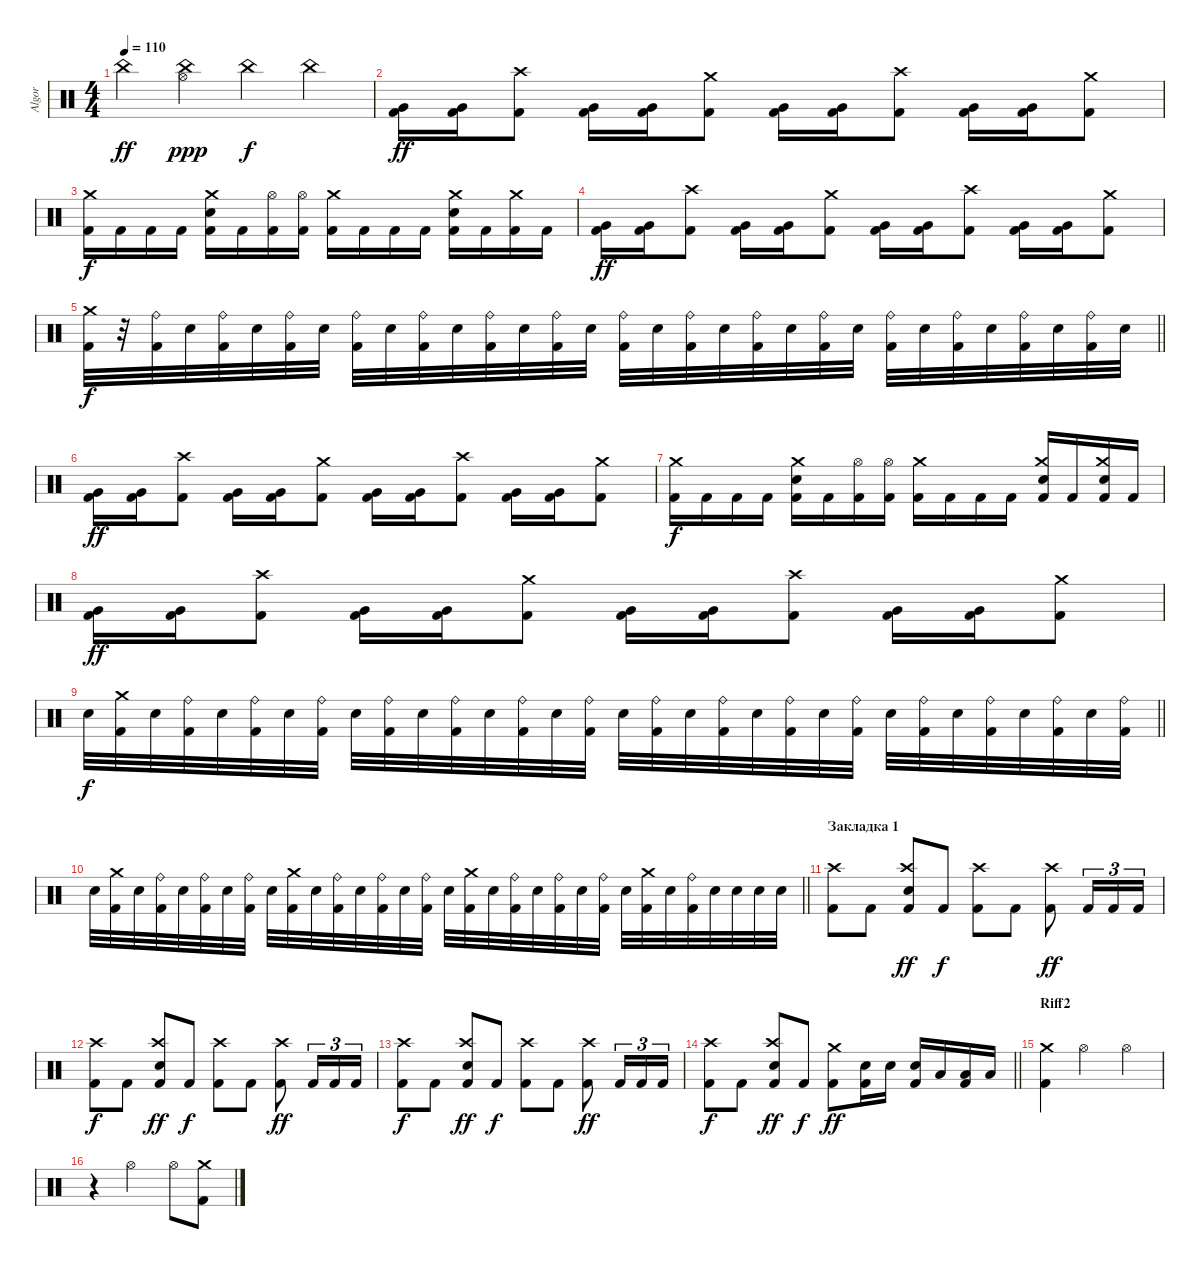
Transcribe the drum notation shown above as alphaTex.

\track ("Algor" "Algor") {instrument percussion}
\staff {score}
\articulation defaults
\ts (4 4)
\tempo 110
\clef neutral
\ks c "China (hit)".4{dy ff}
("Hi-Hat (open)" "China (hit)").4{dy ppp} "China (hit)".4{dy f} "China (hit)".4 |
("Very Low Tom (hit)" "Kick (hit) 2").16{dy ff} ("Very Low Tom (hit)" "Kick (hit) 2").16 ("Crash high (hit)" "Kick (hit) 2").8 ("Very Low Tom (hit)" "Kick (hit) 2").16 ("Very Low Tom (hit)" "Kick (hit) 2").16 ("Crash medium (hit)" "Kick (hit) 2").8 ("Very Low Tom (hit)" "Kick (hit) 2").16 ("Very Low Tom (hit)" "Kick (hit) 2").16 ("Crash high (hit)" "Kick (hit) 2").8 ("Very Low Tom (hit)" "Kick (hit) 2").16 ("Very Low Tom (hit)" "Kick (hit) 2").16 ("Crash medium (hit)" "Kick (hit) 2").8 |
("Crash medium (hit)" "Kick (hit) 2").16{dy f} "Kick (hit) 2".16 "Kick (hit) 2".16 "Kick (hit) 2".16 ("Crash medium (hit)" "Snare (hit) 2" "Kick (hit) 2").16 "Kick (hit) 2".16 ("Hi-Hat (open)" "Kick (hit) 2").16 ("Hi-Hat (open)" "Kick (hit) 2").16 ("Crash medium (hit)" "Kick (hit) 2").16 "Kick (hit) 2".16 "Kick (hit) 2".16 "Kick (hit) 2".16 ("Crash medium (hit)" "Snare (hit) 2" "Kick (hit) 2").16 "Kick (hit) 2".16 ("Crash medium (hit)" "Kick (hit) 2").16 "Kick (hit) 2".16 |
("Very Low Tom (hit)" "Kick (hit) 2").16{dy ff} ("Very Low Tom (hit)" "Kick (hit) 2").16 ("Crash high (hit)" "Kick (hit) 2").8 ("Very Low Tom (hit)" "Kick (hit) 2").16 ("Very Low Tom (hit)" "Kick (hit) 2").16 ("Crash medium (hit)" "Kick (hit) 2").8 ("Very Low Tom (hit)" "Kick (hit) 2").16 ("Very Low Tom (hit)" "Kick (hit) 2").16 ("Crash high (hit)" "Kick (hit) 2").8 ("Very Low Tom (hit)" "Kick (hit) 2").16 ("Very Low Tom (hit)" "Kick (hit) 2").16 ("Crash medium (hit)" "Kick (hit) 2").8 |
\barLineRight lightlight
("Crash medium (hit)" "Kick (hit) 2").32{dy f} r.32 ("Ride (bell)" "Kick (hit) 2").32 "Snare (hit) 2".32 ("Ride (bell)" "Kick (hit) 2").32 "Snare (hit) 2".32 ("Ride (bell)" "Kick (hit) 2").32 "Snare (hit) 2".32 ("Ride (bell)" "Kick (hit) 2").32 "Snare (hit) 2".32 ("Ride (bell)" "Kick (hit) 2").32 "Snare (hit) 2".32 ("Ride (bell)" "Kick (hit) 2").32 "Snare (hit) 2".32 ("Ride (bell)" "Kick (hit) 2").32 "Snare (hit) 2".32 ("Ride (bell)" "Kick (hit) 2").32 "Snare (hit) 2".32 ("Ride (bell)" "Kick (hit) 2").32 "Snare (hit) 2".32 ("Ride (bell)" "Kick (hit) 2").32 "Snare (hit) 2".32 ("Ride (bell)" "Kick (hit) 2").32 "Snare (hit) 2".32 ("Ride (bell)" "Kick (hit) 2").32 "Snare (hit) 2".32 ("Ride (bell)" "Kick (hit) 2").32 "Snare (hit) 2".32 ("Ride (bell)" "Kick (hit) 2").32 "Snare (hit) 2".32 ("Ride (bell)" "Kick (hit) 2").32 "Snare (hit) 2".32 |
("Very Low Tom (hit)" "Kick (hit) 2").16{dy ff} ("Very Low Tom (hit)" "Kick (hit) 2").16 ("Crash high (hit)" "Kick (hit) 2").8 ("Very Low Tom (hit)" "Kick (hit) 2").16 ("Very Low Tom (hit)" "Kick (hit) 2").16 ("Crash medium (hit)" "Kick (hit) 2").8 ("Very Low Tom (hit)" "Kick (hit) 2").16 ("Very Low Tom (hit)" "Kick (hit) 2").16 ("Crash high (hit)" "Kick (hit) 2").8 ("Very Low Tom (hit)" "Kick (hit) 2").16 ("Very Low Tom (hit)" "Kick (hit) 2").16 ("Crash medium (hit)" "Kick (hit) 2").8 |
("Crash medium (hit)" "Kick (hit) 2").16{dy f} "Kick (hit) 2".16 "Kick (hit) 2".16 "Kick (hit) 2".16 ("Crash medium (hit)" "Snare (hit) 2" "Kick (hit) 2").16 "Kick (hit) 2".16 ("Hi-Hat (open)" "Kick (hit) 2").16 ("Hi-Hat (open)" "Kick (hit) 2").16 ("Crash medium (hit)" "Kick (hit) 2").16 "Kick (hit) 2".16 "Kick (hit) 2".16 "Kick (hit) 2".16 ("Crash medium (hit)" "Snare (hit) 2" "Kick (hit) 2").16 "Kick (hit) 2".16 ("Crash medium (hit)" "Snare (hit) 2" "Kick (hit) 2").16 "Kick (hit) 2".16 |
("Very Low Tom (hit)" "Kick (hit) 2").16{dy ff} ("Very Low Tom (hit)" "Kick (hit) 2").16 ("Crash high (hit)" "Kick (hit) 2").8 ("Very Low Tom (hit)" "Kick (hit) 2").16 ("Very Low Tom (hit)" "Kick (hit) 2").16 ("Crash medium (hit)" "Kick (hit) 2").8 ("Very Low Tom (hit)" "Kick (hit) 2").16 ("Very Low Tom (hit)" "Kick (hit) 2").16 ("Crash high (hit)" "Kick (hit) 2").8 ("Very Low Tom (hit)" "Kick (hit) 2").16 ("Very Low Tom (hit)" "Kick (hit) 2").16 ("Crash medium (hit)" "Kick (hit) 2").8 |
\barLineRight lightlight "Snare (hit) 2".32{dy f}
("Crash medium (hit)" "Kick (hit) 2").32 "Snare (hit) 2".32 ("Ride (bell)" "Kick (hit) 2").32 "Snare (hit) 2".32 ("Ride (bell)" "Kick (hit) 2").32 "Snare (hit) 2".32 ("Ride (bell)" "Kick (hit) 2").32 "Snare (hit) 2".32 ("Ride (bell)" "Kick (hit) 2").32 "Snare (hit) 2".32 ("Ride (bell)" "Kick (hit) 2").32 "Snare (hit) 2".32 ("Ride (bell)" "Kick (hit) 2").32 "Snare (hit) 2".32 ("Ride (bell)" "Kick (hit) 2").32 "Snare (hit) 2".32 ("Ride (bell)" "Kick (hit) 2").32 "Snare (hit) 2".32 ("Ride (bell)" "Kick (hit) 2").32 "Snare (hit) 2".32 ("Ride (bell)" "Kick (hit) 2").32 "Snare (hit) 2".32 ("Ride (bell)" "Kick (hit) 2").32 "Snare (hit) 2".32 ("Ride (bell)" "Kick (hit) 2").32 "Snare (hit) 2".32 ("Ride (bell)" "Kick (hit) 2").32 "Snare (hit) 2".32 ("Ride (bell)" "Kick (hit) 2").32 "Snare (hit) 2".32 ("Ride (bell)" "Kick (hit) 2").32 |
\barLineRight lightlight "Snare (hit) 2".32
("Crash medium (hit)" "Kick (hit) 2").32 "Snare (hit) 2".32 ("Ride (bell)" "Kick (hit) 2").32 "Snare (hit) 2".32 ("Ride (bell)" "Kick (hit) 2").32 "Snare (hit) 2".32 ("Ride (bell)" "Kick (hit) 2").32 "Snare (hit) 2".32 ("Crash medium (hit)" "Kick (hit) 2").32 "Snare (hit) 2".32 ("Ride (bell)" "Kick (hit) 2").32 "Snare (hit) 2".32 ("Ride (bell)" "Kick (hit) 2").32 "Snare (hit) 2".32 ("Ride (bell)" "Kick (hit) 2").32 "Snare (hit) 2".32 ("Crash medium (hit)" "Kick (hit) 2").32 "Snare (hit) 2".32 ("Ride (bell)" "Kick (hit) 2").32 "Snare (hit) 2".32 ("Ride (bell)" "Kick (hit) 2").32 "Snare (hit) 2".32 ("Ride (bell)" "Kick (hit) 2").32 "Snare (hit) 2".32 ("Crash medium (hit)" "Kick (hit) 2").32 "Snare (hit) 2".32 ("Ride (bell)" "Kick (hit) 2").32 "Snare (hit) 2".32 "Snare (hit) 2".32 "Snare (hit) 2".32 "Snare (hit) 2".32 |
\section ("" "Закладка 1")
("Crash high (hit)" "Kick (hit) 2").8 "Kick (hit) 2".8 ("Crash high (hit)" "Snare (hit) 2" "Kick (hit) 2").8{dy ff} "Kick (hit) 2".8{dy f} ("Crash high (hit)" "Kick (hit) 2").8 "Kick (hit) 2".8 ("Crash high (hit)" "Kick (hit) 2").8{dy ff} "Kick (hit) 2".16{tu (3 2)} "Kick (hit) 2".16{tu (3 2)} "Kick (hit) 2".16{tu (3 2)} |
("Crash high (hit)" "Kick (hit) 2").8{dy f} "Kick (hit) 2".8 ("Crash high (hit)" "Snare (hit) 2" "Kick (hit) 2").8{dy ff} "Kick (hit) 2".8{dy f} ("Crash high (hit)" "Kick (hit) 2").8 "Kick (hit) 2".8 ("Crash high (hit)" "Kick (hit) 2").8{dy ff} "Kick (hit) 2".16{tu (3 2)} "Kick (hit) 2".16{tu (3 2)} "Kick (hit) 2".16{tu (3 2)} |
("Crash high (hit)" "Kick (hit) 2").8{dy f} "Kick (hit) 2".8 ("Crash high (hit)" "Snare (hit) 2" "Kick (hit) 2").8{dy ff} "Kick (hit) 2".8{dy f} ("Crash high (hit)" "Kick (hit) 2").8 "Kick (hit) 2".8 ("Crash high (hit)" "Kick (hit) 2").8{dy ff} "Kick (hit) 2".16{tu (3 2)} "Kick (hit) 2".16{tu (3 2)} "Kick (hit) 2".16{tu (3 2)} |
\barLineRight lightlight
("Crash high (hit)" "Kick (hit) 2").8{dy f} "Kick (hit) 2".8 ("Crash high (hit)" "Snare (hit) 2" "Kick (hit) 2").8{dy ff} "Kick (hit) 2".8{dy f} ("Crash medium (hit)" "Kick (hit) 2").8{dy ff} ("Snare (hit) 2" "Kick (hit) 2").16 "Snare (hit) 2".16 ("Snare (hit) 2" "Kick (hit) 2").16 "Low Tom (hit)".16 ("Low Tom (hit)" "Kick (hit) 2").16 "Low Tom (hit)".16 |
\section ("" "Riff2")
("Crash medium (hit)" "Kick (hit) 2").4 "Hi-Hat (open)".2 "Hi-Hat (open)".4 |
r.4 "Hi-Hat (open)".2 "Hi-Hat (open)".8 ("Crash medium (hit)" "Kick (hit) 2").8
